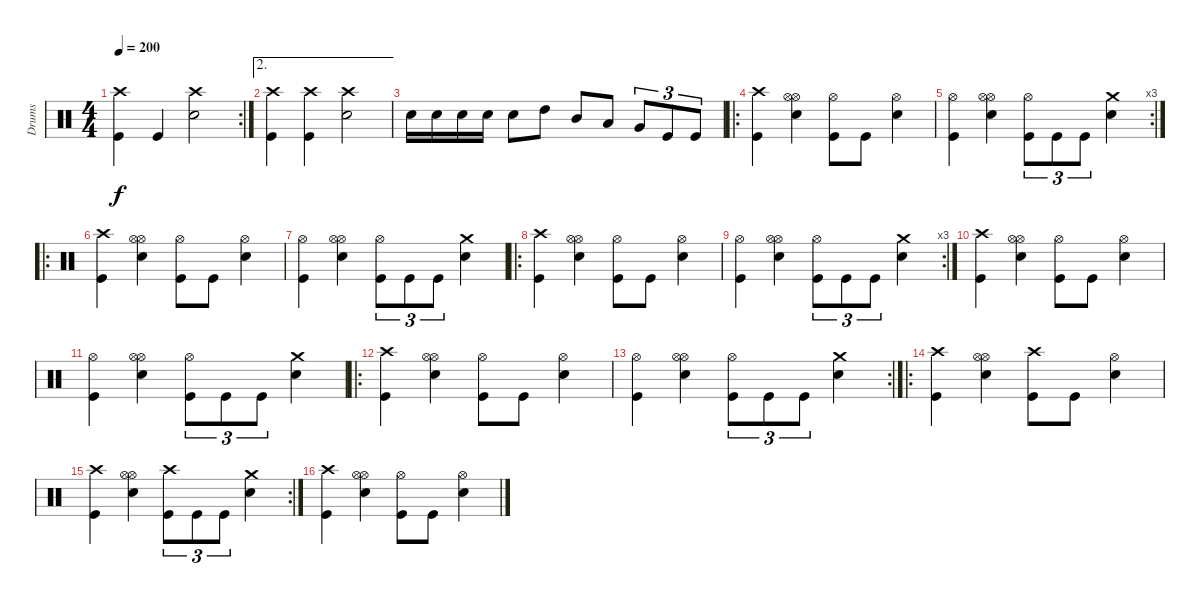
\track ("Drums" "Drums") {instrument percussion}
\staff {score}
\articulation defaults
\rc 2
\ts (4 4)
\tempo 200
\clef neutral
\ks c
("Crash high (hit)" "Kick (hit)").4{dy f} "Kick (hit)".4 ("Crash high (hit)" "Snare (hit) 2").2 |
\ae 2
("Crash high (hit)" "Kick (hit)").4 ("Crash high (hit)" "Kick (hit)").4 ("Crash high (hit)" "Snare (hit) 2").2 |
"Snare (hit) 2".16 "Snare (hit) 2".16 "Snare (hit) 2".16 "Snare (hit) 2".16 "Snare (hit) 2".8 "High Tom (hit)".8 "Mid Tom (hit)".8 "Low Tom (hit)".8 "Very Low Tom (hit)".8{tu (3 2)} "Kick (hit)".8{tu (3 2)} "Kick (hit)".8{tu (3 2)} |
\ro
("Crash high (hit)" "Kick (hit)").4 ("Hi-Hat (open)" "Snare (hit) 2" "Hi-Hat (open)").4 ("Hi-Hat (open)" "Kick (hit)").8 "Kick (hit)".8 ("Hi-Hat (open)" "Snare (hit) 2").4 |
\rc 3
("Hi-Hat (open)" "Kick (hit)").4 ("Hi-Hat (open)" "Snare (hit) 2" "Hi-Hat (open)").4 ("Hi-Hat (open)" "Kick (hit)").8{tu (3 2)} "Kick (hit)".8{tu (3 2)} "Kick (hit)".8{tu (3 2)} ("Crash medium (hit)" "Snare (hit) 2").4 |
\ro
("Crash high (hit)" "Kick (hit)").4 ("Hi-Hat (open)" "Snare (hit) 2" "Hi-Hat (open)").4 ("Hi-Hat (open)" "Kick (hit)").8 "Kick (hit)".8 ("Hi-Hat (open)" "Snare (hit) 2").4 |
("Hi-Hat (open)" "Kick (hit)").4 ("Hi-Hat (open)" "Snare (hit) 2" "Hi-Hat (open)").4 ("Hi-Hat (open)" "Kick (hit)").8{tu (3 2)} "Kick (hit)".8{tu (3 2)} "Kick (hit)".8{tu (3 2)} ("Crash medium (hit)" "Snare (hit) 2").4 |
\ro
("Crash high (hit)" "Kick (hit)").4 ("Hi-Hat (open)" "Snare (hit) 2" "Hi-Hat (open)").4 ("Hi-Hat (open)" "Kick (hit)").8 "Kick (hit)".8 ("Hi-Hat (open)" "Snare (hit) 2").4 |
\rc 3
("Hi-Hat (open)" "Kick (hit)").4 ("Hi-Hat (open)" "Snare (hit) 2" "Hi-Hat (open)").4 ("Hi-Hat (open)" "Kick (hit)").8{tu (3 2)} "Kick (hit)".8{tu (3 2)} "Kick (hit)".8{tu (3 2)} ("Crash medium (hit)" "Snare (hit) 2").4 |
("Crash high (hit)" "Kick (hit)").4 ("Hi-Hat (open)" "Snare (hit) 2" "Hi-Hat (open)").4 ("Hi-Hat (open)" "Kick (hit)").8 "Kick (hit)".8 ("Hi-Hat (open)" "Snare (hit) 2").4 |
("Hi-Hat (open)" "Kick (hit)").4 ("Hi-Hat (open)" "Snare (hit) 2" "Hi-Hat (open)").4 ("Hi-Hat (open)" "Kick (hit)").8{tu (3 2)} "Kick (hit)".8{tu (3 2)} "Kick (hit)".8{tu (3 2)} ("Crash medium (hit)" "Snare (hit) 2").4 |
\ro
("Crash high (hit)" "Kick (hit)").4 ("Hi-Hat (open)" "Snare (hit) 2" "Hi-Hat (open)").4 ("Hi-Hat (open)" "Kick (hit)").8 "Kick (hit)".8 ("Hi-Hat (open)" "Snare (hit) 2").4 |
\rc 2
("Hi-Hat (open)" "Kick (hit)").4 ("Hi-Hat (open)" "Snare (hit) 2" "Hi-Hat (open)").4 ("Hi-Hat (open)" "Kick (hit)").8{tu (3 2)} "Kick (hit)".8{tu (3 2)} "Kick (hit)".8{tu (3 2)} ("Crash medium (hit)" "Snare (hit) 2").4 |
\ro
("Crash high (hit)" "Kick (hit)").4 ("Hi-Hat (open)" "Snare (hit) 2" "Hi-Hat (open)").4 ("Crash high (hit)" "Kick (hit)").8 "Kick (hit)".8 ("Hi-Hat (open)" "Snare (hit) 2").4 |
\rc 2
("Crash high (hit)" "Kick (hit)").4 ("Hi-Hat (open)" "Snare (hit) 2" "Hi-Hat (open)").4 ("Crash high (hit)" "Kick (hit)").8{tu (3 2)} "Kick (hit)".8{tu (3 2)} "Kick (hit)".8{tu (3 2)} ("Crash medium (hit)" "Snare (hit) 2").4 |
("Crash high (hit)" "Kick (hit)").4 ("Hi-Hat (open)" "Snare (hit) 2" "Hi-Hat (open)").4 ("Hi-Hat (open)" "Kick (hit)").8 "Kick (hit)".8 ("Hi-Hat (open)" "Snare (hit) 2").4
